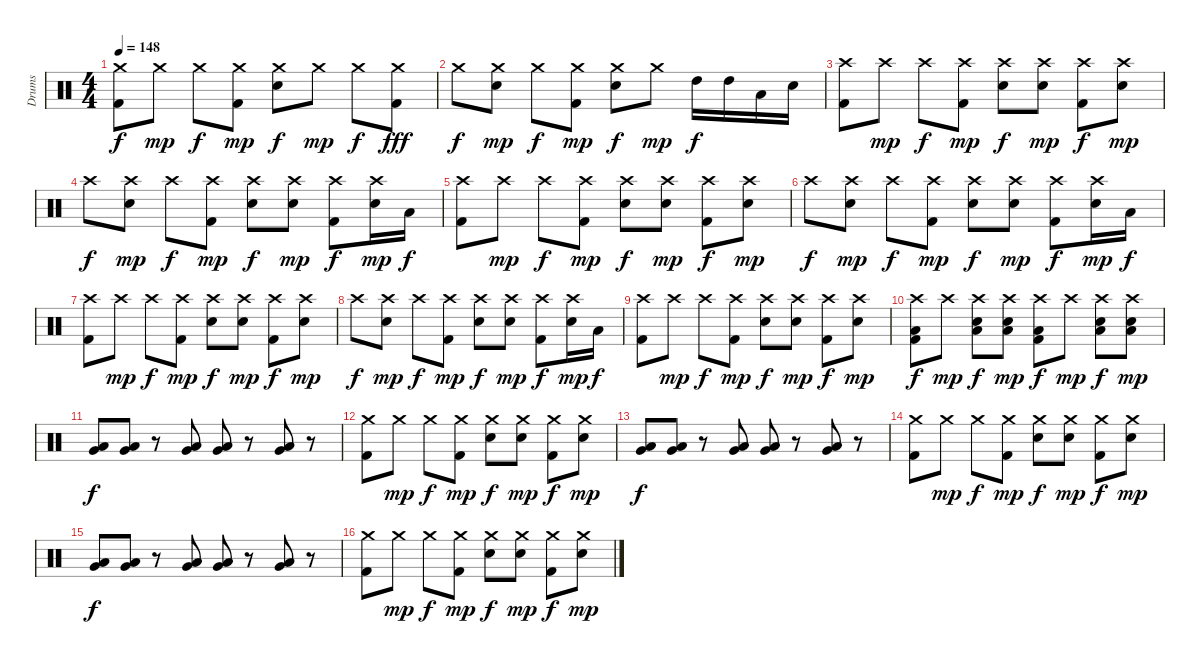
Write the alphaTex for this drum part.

\track ("Drums" "Drums") {instrument percussion}
\staff {score}
\articulation defaults
\ts (4 4)
\tempo 148
\clef neutral
\ks c
("Crash medium (hit)" "Kick (hit) 2").8{dy f} "Crash medium (hit)".8{dy mp} "Crash medium (hit)".8{dy f} ("Crash medium (hit)" "Kick (hit) 2").8{dy mp} ("Crash medium (hit)" "Snare (hit) 2").8{dy f} "Crash medium (hit)".8{dy mp} "Crash medium (hit)".8{dy f} ("Crash medium (hit)" "Kick (hit) 2").8{dy fff} |
"Crash medium (hit)".8{dy f} ("Crash medium (hit)" "Snare (hit) 2").8{dy mp} "Crash medium (hit)".8{dy f} ("Crash medium (hit)" "Kick (hit) 2").8{dy mp} ("Crash medium (hit)" "Snare (hit) 2").8{dy f} "Crash medium (hit)".8{dy mp} "High Tom (hit)".16{dy f} "High Tom (hit)".16 "Low Tom (hit)".16 "Snare (hit) 2".16 |
("Crash high (hit)" "Kick (hit) 2").8 "Crash high (hit)".8{dy mp} "Crash high (hit)".8{dy f} ("Crash high (hit)" "Kick (hit) 2").8{dy mp} ("Crash high (hit)" "Snare (hit) 2").8{dy f} ("Crash high (hit)" "Snare (hit) 2").8{dy mp} ("Crash high (hit)" "Kick (hit) 2").8{dy f} ("Crash high (hit)" "Snare (hit) 2").8{dy mp} |
"Crash high (hit)".8{dy f} ("Crash high (hit)" "Snare (hit) 2").8{dy mp} "Crash high (hit)".8{dy f} ("Crash high (hit)" "Kick (hit) 2").8{dy mp} ("Crash high (hit)" "Snare (hit) 2").8{dy f} ("Crash high (hit)" "Snare (hit) 2").8{dy mp} ("Crash high (hit)" "Kick (hit) 2").8{dy f} ("Crash high (hit)" "Snare (hit) 2").16{dy mp} "Low Tom (hit)".16{dy f} |
("Crash high (hit)" "Kick (hit) 2").8 "Crash high (hit)".8{dy mp} "Crash high (hit)".8{dy f} ("Crash high (hit)" "Kick (hit) 2").8{dy mp} ("Crash high (hit)" "Snare (hit) 2").8{dy f} ("Crash high (hit)" "Snare (hit) 2").8{dy mp} ("Crash high (hit)" "Kick (hit) 2").8{dy f} ("Crash high (hit)" "Snare (hit) 2").8{dy mp} |
"Crash high (hit)".8{dy f} ("Crash high (hit)" "Snare (hit) 2").8{dy mp} "Crash high (hit)".8{dy f} ("Crash high (hit)" "Kick (hit) 2").8{dy mp} ("Crash high (hit)" "Snare (hit) 2").8{dy f} ("Crash high (hit)" "Snare (hit) 2").8{dy mp} ("Crash high (hit)" "Kick (hit) 2").8{dy f} ("Crash high (hit)" "Snare (hit) 2").16{dy mp} "Low Tom (hit)".16{dy f} |
("Crash high (hit)" "Kick (hit) 2").8 "Crash high (hit)".8{dy mp} "Crash high (hit)".8{dy f} ("Crash high (hit)" "Kick (hit) 2").8{dy mp} ("Crash high (hit)" "Snare (hit) 2").8{dy f} ("Crash high (hit)" "Snare (hit) 2").8{dy mp} ("Crash high (hit)" "Kick (hit) 2").8{dy f} ("Crash high (hit)" "Snare (hit) 2").8{dy mp} |
"Crash high (hit)".8{dy f} ("Crash high (hit)" "Snare (hit) 2").8{dy mp} "Crash high (hit)".8{dy f} ("Crash high (hit)" "Kick (hit) 2").8{dy mp} ("Crash high (hit)" "Snare (hit) 2").8{dy f} ("Crash high (hit)" "Snare (hit) 2").8{dy mp} ("Crash high (hit)" "Kick (hit) 2").8{dy f} ("Crash high (hit)" "Snare (hit) 2").16{dy mp} "Low Tom (hit)".16{dy f} |
("Crash high (hit)" "Kick (hit) 2").8 "Crash high (hit)".8{dy mp} "Crash high (hit)".8{dy f} ("Crash high (hit)" "Kick (hit) 2").8{dy mp} ("Crash high (hit)" "Snare (hit) 2").8{dy f} ("Crash high (hit)" "Snare (hit) 2").8{dy mp} ("Crash high (hit)" "Kick (hit) 2").8{dy f} ("Crash high (hit)" "Snare (hit) 2").8{dy mp} |
("Crash high (hit)" "Low Tom (hit)" "Kick (hit) 2").8{dy f} "Crash high (hit)".8{dy mp} ("Crash high (hit)" "Low Tom (hit)" "Snare (hit) 2").8{dy f} ("Crash high (hit)" "Low Tom (hit)" "Snare (hit) 2").8{dy mp} ("Crash high (hit)" "Low Tom (hit)" "Kick (hit) 2").8{dy f} "Crash high (hit)".8{dy mp} ("Crash high (hit)" "Low Tom (hit)" "Snare (hit) 2").8{dy f} ("Crash high (hit)" "Low Tom (hit)" "Snare (hit) 2").8{dy mp} |
("Low Tom (hit)" "Very Low Tom (hit)").8{dy f} ("Low Tom (hit)" "Very Low Tom (hit)").8 r.8 ("Low Tom (hit)" "Very Low Tom (hit)").8 ("Low Tom (hit)" "Very Low Tom (hit)").8 r.8 ("Low Tom (hit)" "Very Low Tom (hit)").8 r.8 |
("Crash medium (hit)" "Kick (hit) 2").8 "Crash medium (hit)".8{dy mp} "Crash medium (hit)".8{dy f} ("Crash medium (hit)" "Kick (hit) 2").8{dy mp} ("Crash medium (hit)" "Snare (hit) 2").8{dy f} ("Crash medium (hit)" "Snare (hit) 2").8{dy mp} ("Crash medium (hit)" "Kick (hit) 2").8{dy f} ("Crash medium (hit)" "Snare (hit) 2").8{dy mp} |
("Low Tom (hit)" "Very Low Tom (hit)").8{dy f} ("Low Tom (hit)" "Very Low Tom (hit)").8 r.8 ("Low Tom (hit)" "Very Low Tom (hit)").8 ("Low Tom (hit)" "Very Low Tom (hit)").8 r.8 ("Low Tom (hit)" "Very Low Tom (hit)").8 r.8 |
("Crash medium (hit)" "Kick (hit) 2").8 "Crash medium (hit)".8{dy mp} "Crash medium (hit)".8{dy f} ("Crash medium (hit)" "Kick (hit) 2").8{dy mp} ("Crash medium (hit)" "Snare (hit) 2").8{dy f} ("Crash medium (hit)" "Snare (hit) 2").8{dy mp} ("Crash medium (hit)" "Kick (hit) 2").8{dy f} ("Crash medium (hit)" "Snare (hit) 2").8{dy mp} |
("Low Tom (hit)" "Very Low Tom (hit)").8{dy f} ("Low Tom (hit)" "Very Low Tom (hit)").8 r.8 ("Low Tom (hit)" "Very Low Tom (hit)").8 ("Low Tom (hit)" "Very Low Tom (hit)").8 r.8 ("Low Tom (hit)" "Very Low Tom (hit)").8 r.8 |
("Crash medium (hit)" "Kick (hit) 2").8 "Crash medium (hit)".8{dy mp} "Crash medium (hit)".8{dy f} ("Crash medium (hit)" "Kick (hit) 2").8{dy mp} ("Crash medium (hit)" "Snare (hit) 2").8{dy f} ("Crash medium (hit)" "Snare (hit) 2").8{dy mp} ("Crash medium (hit)" "Kick (hit) 2").8{dy f} ("Crash medium (hit)" "Snare (hit) 2").8{dy mp}
